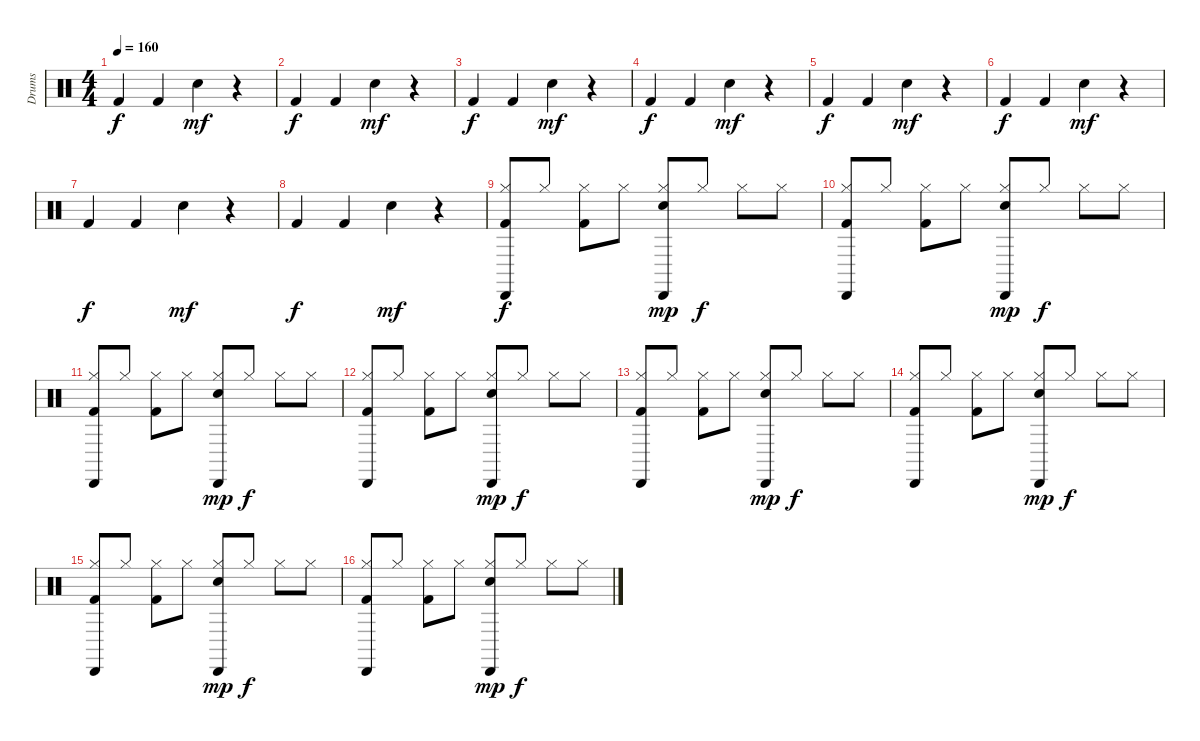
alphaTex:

\track ("Drums" "Drums") {instrument percussion}
\staff {score}
\articulation defaults
\ts (4 4)
\tempo 160
\clef neutral
\ks c "Kick (hit) 2".4{dy f} "Kick (hit) 2".4 "Electric Snare (hit)".4{dy mf}
r.4 |
"Kick (hit) 2".4{dy f} "Kick (hit) 2".4 "Electric Snare (hit)".4{dy mf} r.4 |
"Kick (hit) 2".4{dy f} "Kick (hit) 2".4 "Electric Snare (hit)".4{dy mf} r.4 |
"Kick (hit) 2".4{dy f} "Kick (hit) 2".4 "Electric Snare (hit)".4{dy mf} r.4 |
"Kick (hit) 2".4{dy f} "Kick (hit) 2".4 "Electric Snare (hit)".4{dy mf} r.4 |
"Kick (hit) 2".4{dy f} "Kick (hit) 2".4 "Electric Snare (hit)".4{dy mf} r.4 |
"Kick (hit) 2".4{dy f} "Kick (hit) 2".4 "Electric Snare (hit)".4{dy mf} r.4 |
"Kick (hit) 2".4{dy f} "Kick (hit) 2".4 "Electric Snare (hit)".4{dy mf} r.4 |
("Hi-Hat (closed)" "Cabasa (hit)" "Kick (hit) 2").8{dy f} "Hi-Hat (closed)".8 ("Hi-Hat (closed)" "Kick (hit) 2").8 "Hi-Hat (closed)".8 ("Hi-Hat (closed)" "Cabasa (hit)" "Electric Snare (hit)").8{dy mp} "Hi-Hat (closed)".8{dy f} "Hi-Hat (closed)".8 "Hi-Hat (closed)".8 |
("Hi-Hat (closed)" "Cabasa (hit)" "Kick (hit) 2").8 "Hi-Hat (closed)".8 ("Hi-Hat (closed)" "Kick (hit) 2").8 "Hi-Hat (closed)".8 ("Hi-Hat (closed)" "Cabasa (hit)" "Electric Snare (hit)").8{dy mp} "Hi-Hat (closed)".8{dy f} "Hi-Hat (closed)".8 "Hi-Hat (closed)".8 |
("Hi-Hat (closed)" "Cabasa (hit)" "Kick (hit) 2").8 "Hi-Hat (closed)".8 ("Hi-Hat (closed)" "Kick (hit) 2").8 "Hi-Hat (closed)".8 ("Hi-Hat (closed)" "Cabasa (hit)" "Electric Snare (hit)").8{dy mp} "Hi-Hat (closed)".8{dy f} "Hi-Hat (closed)".8 "Hi-Hat (closed)".8 |
("Hi-Hat (closed)" "Cabasa (hit)" "Kick (hit) 2").8 "Hi-Hat (closed)".8 ("Hi-Hat (closed)" "Kick (hit) 2").8 "Hi-Hat (closed)".8 ("Hi-Hat (closed)" "Cabasa (hit)" "Electric Snare (hit)").8{dy mp} "Hi-Hat (closed)".8{dy f} "Hi-Hat (closed)".8 "Hi-Hat (closed)".8 |
("Hi-Hat (closed)" "Cabasa (hit)" "Kick (hit) 2").8 "Hi-Hat (closed)".8 ("Hi-Hat (closed)" "Kick (hit) 2").8 "Hi-Hat (closed)".8 ("Hi-Hat (closed)" "Cabasa (hit)" "Electric Snare (hit)").8{dy mp} "Hi-Hat (closed)".8{dy f} "Hi-Hat (closed)".8 "Hi-Hat (closed)".8 |
("Hi-Hat (closed)" "Cabasa (hit)" "Kick (hit) 2").8 "Hi-Hat (closed)".8 ("Hi-Hat (closed)" "Kick (hit) 2").8 "Hi-Hat (closed)".8 ("Hi-Hat (closed)" "Cabasa (hit)" "Electric Snare (hit)").8{dy mp} "Hi-Hat (closed)".8{dy f} "Hi-Hat (closed)".8 "Hi-Hat (closed)".8 |
("Hi-Hat (closed)" "Cabasa (hit)" "Kick (hit) 2").8 "Hi-Hat (closed)".8 ("Hi-Hat (closed)" "Kick (hit) 2").8 "Hi-Hat (closed)".8 ("Hi-Hat (closed)" "Cabasa (hit)" "Electric Snare (hit)").8{dy mp} "Hi-Hat (closed)".8{dy f} "Hi-Hat (closed)".8 "Hi-Hat (closed)".8 |
("Hi-Hat (closed)" "Cabasa (hit)" "Kick (hit) 2").8 "Hi-Hat (closed)".8 ("Hi-Hat (closed)" "Kick (hit) 2").8 "Hi-Hat (closed)".8 ("Hi-Hat (closed)" "Cabasa (hit)" "Electric Snare (hit)").8{dy mp} "Hi-Hat (closed)".8{dy f} "Hi-Hat (closed)".8 "Hi-Hat (closed)".8
